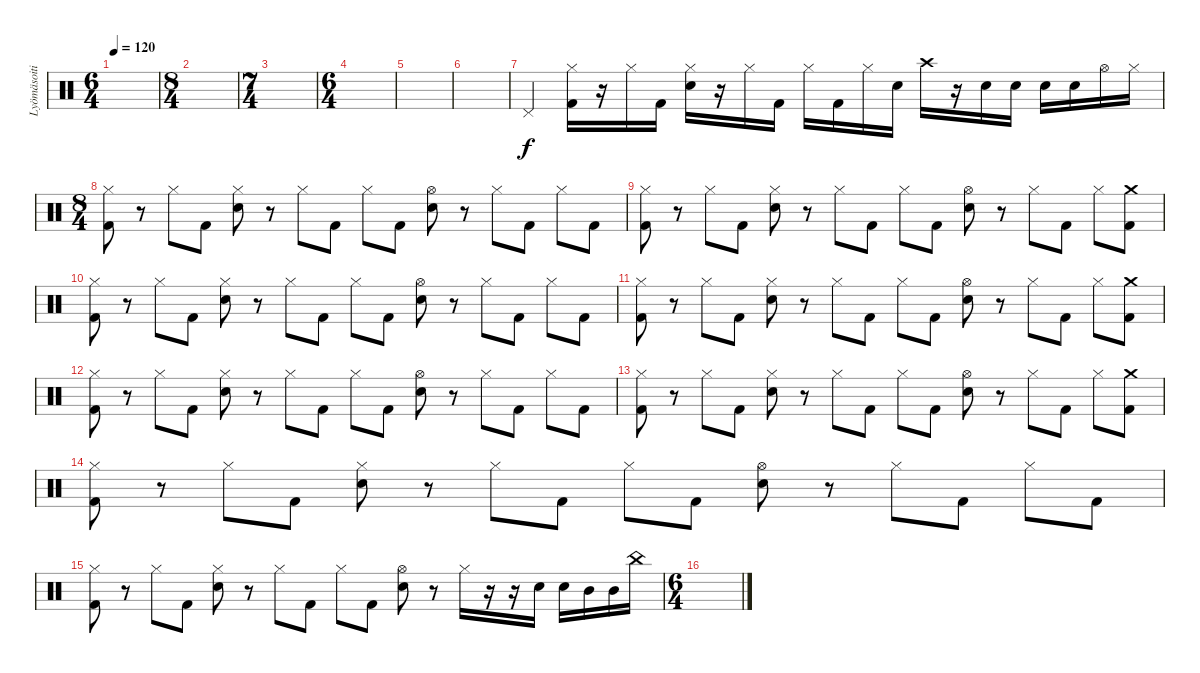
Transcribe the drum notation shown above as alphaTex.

\track ("Lyömäsoitin" "Lyömäsoiti") {instrument percussion}
\staff {score}
\articulation defaults
\ts (6 4)
\tempo 120
\clef neutral
\ks c
|
\ts (8 4)
|
\ts (7 4)
|
\ts (6 4)
|
|
|
"Pedal Hi-Hat (hit)".4 ("Hi-Hat (closed)" "Kick (hit) 2").16 r.16 "Hi-Hat (closed)".16 "Kick (hit) 2".16 ("Hi-Hat (closed)" "Snare (hit) 2").16 r.16 "Hi-Hat (closed)".16 "Kick (hit) 2".16 "Hi-Hat (closed)".16 "Kick (hit) 2".16 "Hi-Hat (closed)".16 "Snare (hit) 2".16 "Crash high (hit)".16 r.16 "Snare (hit) 2".16 "Snare (hit) 2".16 "Snare (hit) 2".16 "Snare (hit) 2".16 "Hi-Hat (open)".16 "Hi-Hat (closed)".16 |
\ts (8 4)
("Hi-Hat (closed)" "Kick (hit) 2").8 r.8 "Hi-Hat (closed)".8 "Kick (hit) 2".8 ("Hi-Hat (closed)" "Snare (hit) 2").8 r.8 "Hi-Hat (closed)".8 "Kick (hit) 2".8 "Hi-Hat (closed)".8 "Kick (hit) 2".8 ("Hi-Hat (open)" "Snare (hit) 2").8 r.8 "Hi-Hat (closed)".8 "Kick (hit) 2".8 "Hi-Hat (closed)".8 "Kick (hit) 2".8 |
("Hi-Hat (closed)" "Kick (hit) 2").8 r.8 "Hi-Hat (closed)".8 "Kick (hit) 2".8 ("Hi-Hat (closed)" "Snare (hit) 2").8 r.8 "Hi-Hat (closed)".8 "Kick (hit) 2".8 "Hi-Hat (closed)".8 "Kick (hit) 2".8 ("Hi-Hat (open)" "Snare (hit) 2").8 r.8 "Hi-Hat (closed)".8 "Kick (hit) 2".8 "Hi-Hat (closed)".8 ("Crash medium (hit)" "Kick (hit) 2").8 |
("Hi-Hat (closed)" "Kick (hit) 2").8 r.8 "Hi-Hat (closed)".8 "Kick (hit) 2".8 ("Hi-Hat (closed)" "Snare (hit) 2").8 r.8 "Hi-Hat (closed)".8 "Kick (hit) 2".8 "Hi-Hat (closed)".8 "Kick (hit) 2".8 ("Hi-Hat (open)" "Snare (hit) 2").8 r.8 "Hi-Hat (closed)".8 "Kick (hit) 2".8 "Hi-Hat (closed)".8 "Kick (hit) 2".8 |
("Hi-Hat (closed)" "Kick (hit) 2").8 r.8 "Hi-Hat (closed)".8 "Kick (hit) 2".8 ("Hi-Hat (closed)" "Snare (hit) 2").8 r.8 "Hi-Hat (closed)".8 "Kick (hit) 2".8 "Hi-Hat (closed)".8 "Kick (hit) 2".8 ("Hi-Hat (open)" "Snare (hit) 2").8 r.8 "Hi-Hat (closed)".8 "Kick (hit) 2".8 "Hi-Hat (closed)".8 ("Crash medium (hit)" "Kick (hit) 2").8 |
("Hi-Hat (closed)" "Kick (hit) 2").8 r.8 "Hi-Hat (closed)".8 "Kick (hit) 2".8 ("Hi-Hat (closed)" "Snare (hit) 2").8 r.8 "Hi-Hat (closed)".8 "Kick (hit) 2".8 "Hi-Hat (closed)".8 "Kick (hit) 2".8 ("Hi-Hat (open)" "Snare (hit) 2").8 r.8 "Hi-Hat (closed)".8 "Kick (hit) 2".8 "Hi-Hat (closed)".8 "Kick (hit) 2".8 |
("Hi-Hat (closed)" "Kick (hit) 2").8 r.8 "Hi-Hat (closed)".8 "Kick (hit) 2".8 ("Hi-Hat (closed)" "Snare (hit) 2").8 r.8 "Hi-Hat (closed)".8 "Kick (hit) 2".8 "Hi-Hat (closed)".8 "Kick (hit) 2".8 ("Hi-Hat (open)" "Snare (hit) 2").8 r.8 "Hi-Hat (closed)".8 "Kick (hit) 2".8 "Hi-Hat (closed)".8 ("Crash medium (hit)" "Kick (hit) 2").8 |
("Hi-Hat (closed)" "Kick (hit) 2").8 r.8 "Hi-Hat (closed)".8 "Kick (hit) 2".8 ("Hi-Hat (closed)" "Snare (hit) 2").8 r.8 "Hi-Hat (closed)".8 "Kick (hit) 2".8 "Hi-Hat (closed)".8 "Kick (hit) 2".8 ("Hi-Hat (open)" "Snare (hit) 2").8 r.8 "Hi-Hat (closed)".8 "Kick (hit) 2".8 "Hi-Hat (closed)".8 "Kick (hit) 2".8 |
("Hi-Hat (closed)" "Kick (hit) 2").8 r.8 "Hi-Hat (closed)".8 "Kick (hit) 2".8 ("Hi-Hat (closed)" "Snare (hit) 2").8 r.8 "Hi-Hat (closed)".8 "Kick (hit) 2".8 "Hi-Hat (closed)".8 "Kick (hit) 2".8 ("Hi-Hat (open)" "Snare (hit) 2").8 r.8 "Hi-Hat (closed)".16 r.16 r.16 "Snare (hit) 2".16 "Snare (hit) 2".16 "Mid Tom (hit)".16 "Mid Tom (hit)".16 "China (hit)".16 |
\ts (6 4)
